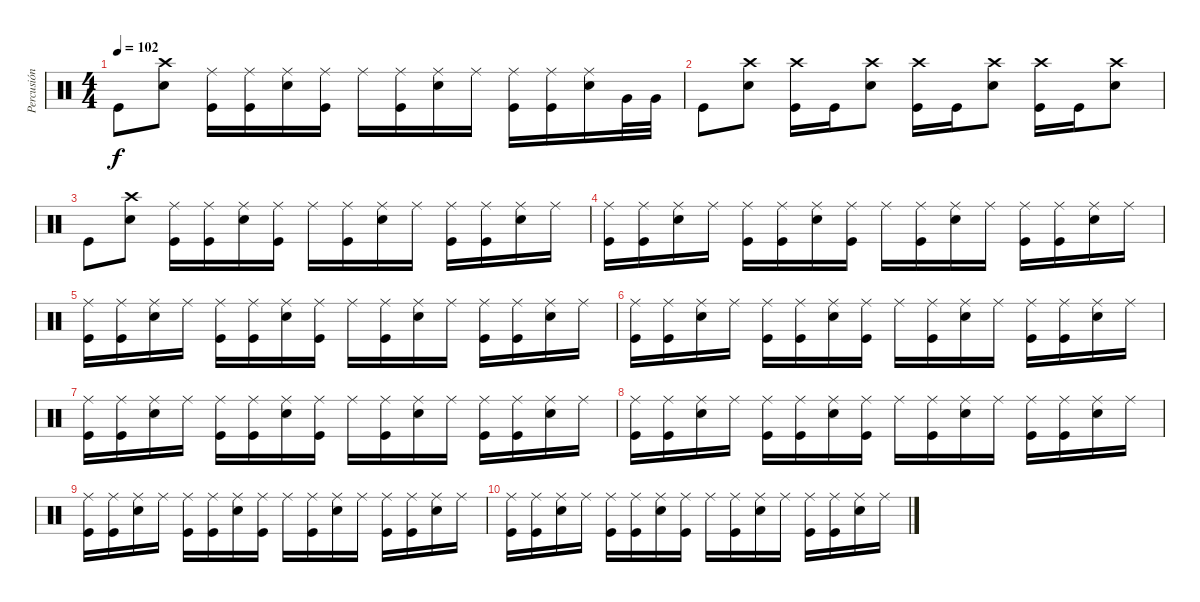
\track ("Percusión" "Percusión") {instrument percussion}
\staff {score}
\articulation defaults
\ts (4 4)
\tempo 102
\clef neutral
\ks c "Kick (hit)".8{dy f}
("Snare (hit) 2" "Crash high (hit)").8 ("Kick (hit)" "Ride (middle)").16 ("Kick (hit)" "Ride (middle)").16 ("Snare (hit) 2" "Ride (middle)").16 ("Kick (hit)" "Ride (middle)").16 "Ride (middle)".16 ("Kick (hit)" "Ride (middle)").16 ("Snare (hit) 2" "Ride (middle)").16 "Ride (middle)".16 ("Kick (hit)" "Ride (middle)").16 ("Kick (hit)" "Ride (middle)").16 ("Snare (hit) 2" "Ride (middle)").16 "Very Low Tom (hit)".32 "Very Low Tom (hit)".32 |
"Kick (hit)".8 ("Snare (hit) 2" "Crash high (hit)").8 ("Kick (hit)" "Crash high (hit)").16 "Kick (hit)".16 ("Snare (hit) 2" "Crash high (hit)").8 ("Kick (hit)" "Crash high (hit)").16 "Kick (hit)".16 ("Snare (hit) 2" "Crash high (hit)").8 ("Kick (hit)" "Crash high (hit)").16 "Kick (hit)".16 ("Snare (hit) 2" "Crash high (hit)").8 |
"Kick (hit)".8{volume 5} ("Snare (hit) 2" "Crash high (hit)").8 ("Kick (hit)" "Ride (middle)").16 ("Kick (hit)" "Ride (middle)").16 ("Snare (hit) 2" "Ride (middle)").16 ("Kick (hit)" "Ride (middle)").16 "Ride (middle)".16 ("Kick (hit)" "Ride (middle)").16 ("Snare (hit) 2" "Ride (middle)").16 "Ride (middle)".16 ("Kick (hit)" "Ride (middle)").16 ("Kick (hit)" "Ride (middle)").16 ("Snare (hit) 2" "Ride (middle)").16 "Ride (middle)".16 |
("Kick (hit)" "Ride (middle)").16 ("Kick (hit)" "Ride (middle)").16 ("Snare (hit) 2" "Ride (middle)").16 "Ride (middle)".16 ("Kick (hit)" "Ride (middle)").16 ("Kick (hit)" "Ride (middle)").16 ("Snare (hit) 2" "Ride (middle)").16 ("Kick (hit)" "Ride (middle)").16 "Ride (middle)".16 ("Kick (hit)" "Ride (middle)").16 ("Snare (hit) 2" "Ride (middle)").16 "Ride (middle)".16 ("Kick (hit)" "Ride (middle)").16 ("Kick (hit)" "Ride (middle)").16 ("Snare (hit) 2" "Ride (middle)").16 "Ride (middle)".16 |
("Kick (hit)" "Ride (middle)").16 ("Kick (hit)" "Ride (middle)").16 ("Snare (hit) 2" "Ride (middle)").16 "Ride (middle)".16 ("Kick (hit)" "Ride (middle)").16 ("Kick (hit)" "Ride (middle)").16 ("Snare (hit) 2" "Ride (middle)").16 ("Kick (hit)" "Ride (middle)").16 "Ride (middle)".16 ("Kick (hit)" "Ride (middle)").16 ("Snare (hit) 2" "Ride (middle)").16 "Ride (middle)".16 ("Kick (hit)" "Ride (middle)").16 ("Kick (hit)" "Ride (middle)").16 ("Snare (hit) 2" "Ride (middle)").16 "Ride (middle)".16 |
("Kick (hit)" "Ride (middle)").16 ("Kick (hit)" "Ride (middle)").16 ("Snare (hit) 2" "Ride (middle)").16 "Ride (middle)".16 ("Kick (hit)" "Ride (middle)").16 ("Kick (hit)" "Ride (middle)").16 ("Snare (hit) 2" "Ride (middle)").16 ("Kick (hit)" "Ride (middle)").16 "Ride (middle)".16 ("Kick (hit)" "Ride (middle)").16 ("Snare (hit) 2" "Ride (middle)").16 "Ride (middle)".16 ("Kick (hit)" "Ride (middle)").16 ("Kick (hit)" "Ride (middle)").16 ("Snare (hit) 2" "Ride (middle)").16 "Ride (middle)".16 |
("Kick (hit)" "Ride (middle)").16{volume 0} ("Kick (hit)" "Ride (middle)").16 ("Snare (hit) 2" "Ride (middle)").16 "Ride (middle)".16 ("Kick (hit)" "Ride (middle)").16 ("Kick (hit)" "Ride (middle)").16 ("Snare (hit) 2" "Ride (middle)").16 ("Kick (hit)" "Ride (middle)").16 "Ride (middle)".16 ("Kick (hit)" "Ride (middle)").16 ("Snare (hit) 2" "Ride (middle)").16 "Ride (middle)".16 ("Kick (hit)" "Ride (middle)").16 ("Kick (hit)" "Ride (middle)").16 ("Snare (hit) 2" "Ride (middle)").16 "Ride (middle)".16 |
("Kick (hit)" "Ride (middle)").16 ("Kick (hit)" "Ride (middle)").16 ("Snare (hit) 2" "Ride (middle)").16 "Ride (middle)".16 ("Kick (hit)" "Ride (middle)").16 ("Kick (hit)" "Ride (middle)").16 ("Snare (hit) 2" "Ride (middle)").16 ("Kick (hit)" "Ride (middle)").16 "Ride (middle)".16 ("Kick (hit)" "Ride (middle)").16 ("Snare (hit) 2" "Ride (middle)").16 "Ride (middle)".16 ("Kick (hit)" "Ride (middle)").16 ("Kick (hit)" "Ride (middle)").16 ("Snare (hit) 2" "Ride (middle)").16 "Ride (middle)".16 |
("Kick (hit)" "Ride (middle)").16 ("Kick (hit)" "Ride (middle)").16 ("Snare (hit) 2" "Ride (middle)").16 "Ride (middle)".16 ("Kick (hit)" "Ride (middle)").16 ("Kick (hit)" "Ride (middle)").16 ("Snare (hit) 2" "Ride (middle)").16 ("Kick (hit)" "Ride (middle)").16 "Ride (middle)".16 ("Kick (hit)" "Ride (middle)").16 ("Snare (hit) 2" "Ride (middle)").16 "Ride (middle)".16 ("Kick (hit)" "Ride (middle)").16 ("Kick (hit)" "Ride (middle)").16 ("Snare (hit) 2" "Ride (middle)").16 "Ride (middle)".16 |
("Kick (hit)" "Ride (middle)").16 ("Kick (hit)" "Ride (middle)").16 ("Snare (hit) 2" "Ride (middle)").16 "Ride (middle)".16 ("Kick (hit)" "Ride (middle)").16 ("Kick (hit)" "Ride (middle)").16 ("Snare (hit) 2" "Ride (middle)").16 ("Kick (hit)" "Ride (middle)").16 "Ride (middle)".16 ("Kick (hit)" "Ride (middle)").16 ("Snare (hit) 2" "Ride (middle)").16 "Ride (middle)".16 ("Kick (hit)" "Ride (middle)").16 ("Kick (hit)" "Ride (middle)").16 ("Snare (hit) 2" "Ride (middle)").16 "Ride (middle)".16
